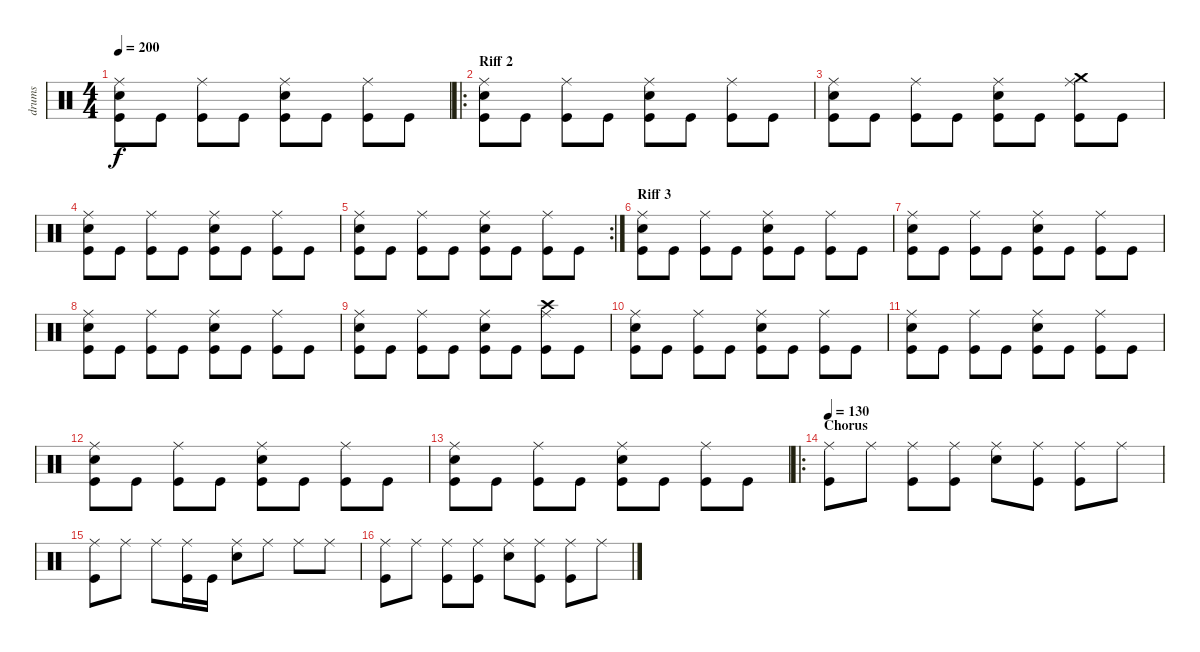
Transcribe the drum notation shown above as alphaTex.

\track ("drums" "drums") {instrument percussion}
\staff {score}
\articulation defaults
\ts (4 4)
\tempo 200
\clef neutral
\ks c
("Ride (middle)" "Snare (hit) 2" "Kick (hit)").8{dy f} "Kick (hit)".8 ("Ride (middle)" "Kick (hit)").8 "Kick (hit)".8 ("Ride (middle)" "Snare (hit) 2" "Kick (hit)").8 "Kick (hit)".8 ("Ride (middle)" "Kick (hit)").8 "Kick (hit)".8 |
\ro
\section ("" "Riff 2")
("Ride (middle)" "Snare (hit) 2" "Kick (hit)").8 "Kick (hit)".8 ("Ride (middle)" "Kick (hit)").8 "Kick (hit)".8 ("Ride (middle)" "Snare (hit) 2" "Kick (hit)").8 "Kick (hit)".8 ("Ride (middle)" "Kick (hit)").8 "Kick (hit)".8 |
("Ride (middle)" "Snare (hit) 2" "Kick (hit)").8 "Kick (hit)".8 ("Ride (middle)" "Kick (hit)").8 "Kick (hit)".8 ("Ride (middle)" "Snare (hit) 2" "Kick (hit)").8 "Kick (hit)".8 ("Ride (middle)" "Crash medium (hit)" "Kick (hit)").8 "Kick (hit)".8 |
("Ride (middle)" "Snare (hit) 2" "Kick (hit)").8 "Kick (hit)".8 ("Ride (middle)" "Kick (hit)").8 "Kick (hit)".8 ("Ride (middle)" "Snare (hit) 2" "Kick (hit)").8 "Kick (hit)".8 ("Ride (middle)" "Kick (hit)").8 "Kick (hit)".8 |
\rc 2
("Ride (middle)" "Snare (hit) 2" "Kick (hit)").8 "Kick (hit)".8 ("Ride (middle)" "Kick (hit)").8 "Kick (hit)".8 ("Ride (middle)" "Snare (hit) 2" "Kick (hit)").8 "Kick (hit)".8 ("Ride (middle)" "Kick (hit)").8 "Kick (hit)".8 |
\section ("" "Riff 3")
("Ride (middle)" "Snare (hit) 2" "Kick (hit)").8 "Kick (hit)".8 ("Ride (middle)" "Kick (hit)").8 "Kick (hit)".8 ("Ride (middle)" "Snare (hit) 2" "Kick (hit)").8 "Kick (hit)".8 ("Ride (middle)" "Kick (hit)").8 "Kick (hit)".8 |
("Ride (middle)" "Snare (hit) 2" "Kick (hit)").8 "Kick (hit)".8 ("Ride (middle)" "Kick (hit)").8 "Kick (hit)".8 ("Ride (middle)" "Snare (hit) 2" "Kick (hit)").8 "Kick (hit)".8 ("Ride (middle)" "Kick (hit)").8 "Kick (hit)".8 |
("Ride (middle)" "Snare (hit) 2" "Kick (hit)").8 "Kick (hit)".8 ("Ride (middle)" "Kick (hit)").8 "Kick (hit)".8 ("Ride (middle)" "Snare (hit) 2" "Kick (hit)").8 "Kick (hit)".8 ("Ride (middle)" "Kick (hit)").8 "Kick (hit)".8 |
("Ride (middle)" "Snare (hit) 2" "Kick (hit)").8 "Kick (hit)".8 ("Ride (middle)" "Kick (hit)").8 "Kick (hit)".8 ("Ride (middle)" "Snare (hit) 2" "Kick (hit)").8 "Kick (hit)".8 ("Ride (middle)" "Crash high (hit)" "Kick (hit)").8 "Kick (hit)".8 |
("Ride (middle)" "Snare (hit) 2" "Kick (hit)").8 "Kick (hit)".8 ("Ride (middle)" "Kick (hit)").8 "Kick (hit)".8 ("Ride (middle)" "Snare (hit) 2" "Kick (hit)").8 "Kick (hit)".8 ("Ride (middle)" "Kick (hit)").8 "Kick (hit)".8 |
("Ride (middle)" "Snare (hit) 2" "Kick (hit)").8 "Kick (hit)".8 ("Ride (middle)" "Kick (hit)").8 "Kick (hit)".8 ("Ride (middle)" "Snare (hit) 2" "Kick (hit)").8 "Kick (hit)".8 ("Ride (middle)" "Kick (hit)").8 "Kick (hit)".8 |
("Ride (middle)" "Snare (hit) 2" "Kick (hit)").8 "Kick (hit)".8 ("Ride (middle)" "Kick (hit)").8 "Kick (hit)".8 ("Ride (middle)" "Snare (hit) 2" "Kick (hit)").8 "Kick (hit)".8 ("Ride (middle)" "Kick (hit)").8 "Kick (hit)".8 |
("Ride (middle)" "Snare (hit) 2" "Kick (hit)").8 "Kick (hit)".8 ("Ride (middle)" "Kick (hit)").8 "Kick (hit)".8 ("Ride (middle)" "Snare (hit) 2" "Kick (hit)").8 "Kick (hit)".8 ("Ride (middle)" "Kick (hit)").8 "Kick (hit)".8 |
\ro
\section ("" "Chorus")
\tempo 130
("Ride (middle)" "Kick (hit)").8 "Ride (middle)".8 ("Ride (middle)" "Kick (hit)").8 ("Ride (middle)" "Kick (hit)").8 ("Snare (hit) 2" "Ride (middle)").8 ("Ride (middle)" "Kick (hit)").8 ("Ride (middle)" "Kick (hit)").8 "Ride (middle)".8 |
("Ride (middle)" "Kick (hit)").8 "Ride (middle)".8 "Ride (middle)".8 ("Ride (middle)" "Kick (hit)").16 "Kick (hit)".16 ("Snare (hit) 2" "Ride (middle)").8 "Ride (middle)".8 "Ride (middle)".8 "Ride (middle)".8 |
("Ride (middle)" "Kick (hit)").8 "Ride (middle)".8 ("Ride (middle)" "Kick (hit)").8 ("Ride (middle)" "Kick (hit)").8 ("Snare (hit) 2" "Ride (middle)").8 ("Ride (middle)" "Kick (hit)").8 ("Ride (middle)" "Kick (hit)").8 "Ride (middle)".8
